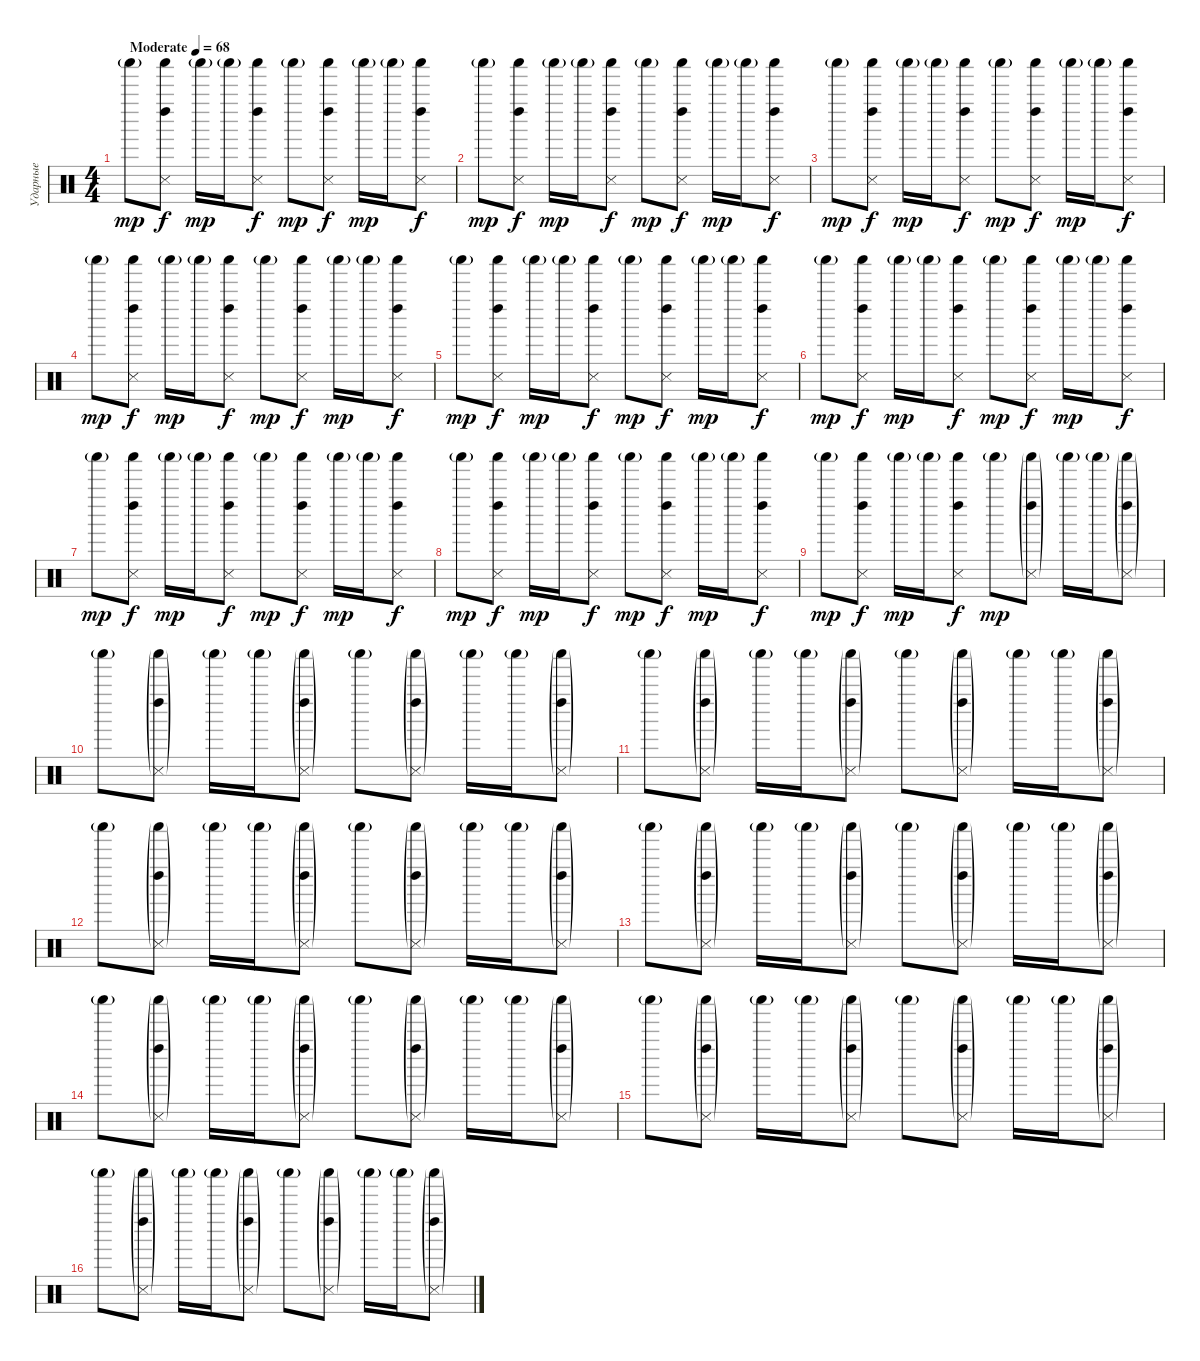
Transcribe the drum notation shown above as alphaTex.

\track ("Ударные" "Ударные") {instrument percussion}
\staff {score}
\articulation defaults
\ts (4 4)
\tempo (68 "Moderate")
\clef neutral
\ks c "Shaker (hit)"{g}.8{dy mp}
("Left Maraca (hit)" "Shaker (hit)" "Snare (side stick) 3").8{dy f} "Shaker (hit)"{g}.16{dy mp} "Shaker (hit)"{g}.16 ("Left Maraca (hit)" "Shaker (hit)" "Snare (side stick) 3").8{dy f} "Shaker (hit)"{g}.8{dy mp} ("Left Maraca (hit)" "Shaker (hit)" "Snare (side stick) 3").8{dy f} "Shaker (hit)"{g}.16{dy mp} "Shaker (hit)"{g}.16 ("Left Maraca (hit)" "Shaker (hit)" "Snare (side stick) 3").8{dy f} |
"Shaker (hit)"{g}.8{dy mp} ("Left Maraca (hit)" "Shaker (hit)" "Snare (side stick) 3").8{dy f} "Shaker (hit)"{g}.16{dy mp} "Shaker (hit)"{g}.16 ("Left Maraca (hit)" "Shaker (hit)" "Snare (side stick) 3").8{dy f} "Shaker (hit)"{g}.8{dy mp} ("Left Maraca (hit)" "Shaker (hit)" "Snare (side stick) 3").8{dy f} "Shaker (hit)"{g}.16{dy mp} "Shaker (hit)"{g}.16 ("Left Maraca (hit)" "Shaker (hit)" "Snare (side stick) 3").8{dy f} |
"Shaker (hit)"{g}.8{dy mp} ("Left Maraca (hit)" "Shaker (hit)" "Snare (side stick) 3").8{dy f} "Shaker (hit)"{g}.16{dy mp} "Shaker (hit)"{g}.16 ("Left Maraca (hit)" "Shaker (hit)" "Snare (side stick) 3").8{dy f} "Shaker (hit)"{g}.8{dy mp} ("Left Maraca (hit)" "Shaker (hit)" "Snare (side stick) 3").8{dy f} "Shaker (hit)"{g}.16{dy mp} "Shaker (hit)"{g}.16 ("Left Maraca (hit)" "Shaker (hit)" "Snare (side stick) 3").8{dy f} |
"Shaker (hit)"{g}.8{dy mp} ("Left Maraca (hit)" "Shaker (hit)" "Snare (side stick) 3").8{dy f} "Shaker (hit)"{g}.16{dy mp} "Shaker (hit)"{g}.16 ("Left Maraca (hit)" "Shaker (hit)" "Snare (side stick) 3").8{dy f} "Shaker (hit)"{g}.8{dy mp} ("Left Maraca (hit)" "Shaker (hit)" "Snare (side stick) 3").8{dy f} "Shaker (hit)"{g}.16{dy mp} "Shaker (hit)"{g}.16 ("Left Maraca (hit)" "Shaker (hit)" "Snare (side stick) 3").8{dy f} |
"Shaker (hit)"{g}.8{dy mp} ("Left Maraca (hit)" "Shaker (hit)" "Snare (side stick) 3").8{dy f} "Shaker (hit)"{g}.16{dy mp} "Shaker (hit)"{g}.16 ("Left Maraca (hit)" "Shaker (hit)" "Snare (side stick) 3").8{dy f} "Shaker (hit)"{g}.8{dy mp} ("Left Maraca (hit)" "Shaker (hit)" "Snare (side stick) 3").8{dy f} "Shaker (hit)"{g}.16{dy mp} "Shaker (hit)"{g}.16 ("Left Maraca (hit)" "Shaker (hit)" "Snare (side stick) 3").8{dy f} |
"Shaker (hit)"{g}.8{dy mp} ("Left Maraca (hit)" "Shaker (hit)" "Snare (side stick) 3").8{dy f} "Shaker (hit)"{g}.16{dy mp} "Shaker (hit)"{g}.16 ("Left Maraca (hit)" "Shaker (hit)" "Snare (side stick) 3").8{dy f} "Shaker (hit)"{g}.8{dy mp} ("Left Maraca (hit)" "Shaker (hit)" "Snare (side stick) 3").8{dy f} "Shaker (hit)"{g}.16{dy mp} "Shaker (hit)"{g}.16 ("Left Maraca (hit)" "Shaker (hit)" "Snare (side stick) 3").8{dy f} |
"Shaker (hit)"{g}.8{dy mp} ("Left Maraca (hit)" "Shaker (hit)" "Snare (side stick) 3").8{dy f} "Shaker (hit)"{g}.16{dy mp} "Shaker (hit)"{g}.16 ("Left Maraca (hit)" "Shaker (hit)" "Snare (side stick) 3").8{dy f} "Shaker (hit)"{g}.8{dy mp} ("Left Maraca (hit)" "Shaker (hit)" "Snare (side stick) 3").8{dy f} "Shaker (hit)"{g}.16{dy mp} "Shaker (hit)"{g}.16 ("Left Maraca (hit)" "Shaker (hit)" "Snare (side stick) 3").8{dy f} |
"Shaker (hit)"{g}.8{dy mp} ("Left Maraca (hit)" "Shaker (hit)" "Snare (side stick) 3").8{dy f} "Shaker (hit)"{g}.16{dy mp} "Shaker (hit)"{g}.16 ("Left Maraca (hit)" "Shaker (hit)" "Snare (side stick) 3").8{dy f} "Shaker (hit)"{g}.8{dy mp} ("Left Maraca (hit)" "Shaker (hit)" "Snare (side stick) 3").8{dy f} "Shaker (hit)"{g}.16{dy mp} "Shaker (hit)"{g}.16 ("Left Maraca (hit)" "Shaker (hit)" "Snare (side stick) 3").8{dy f} |
"Shaker (hit)"{g}.8{dy mp} ("Left Maraca (hit)" "Shaker (hit)" "Snare (side stick) 3").8{dy f} "Shaker (hit)"{g}.16{dy mp} "Shaker (hit)"{g}.16 ("Left Maraca (hit)" "Shaker (hit)" "Snare (side stick) 3").8{dy f} "Shaker (hit)"{g}.8{dy mp} ("Left Maraca (hit)"{g} "Shaker (hit)"{g} "Snare (side stick) 3"{g}).8 "Shaker (hit)"{g}.16 "Shaker (hit)"{g}.16 ("Left Maraca (hit)"{g} "Shaker (hit)"{g} "Snare (side stick) 3"{g}).8 |
"Shaker (hit)"{g}.8 ("Left Maraca (hit)"{g} "Shaker (hit)"{g} "Snare (side stick) 3"{g}).8 "Shaker (hit)"{g}.16 "Shaker (hit)"{g}.16 ("Left Maraca (hit)"{g} "Shaker (hit)"{g} "Snare (side stick) 3"{g}).8 "Shaker (hit)"{g}.8 ("Left Maraca (hit)"{g} "Shaker (hit)"{g} "Snare (side stick) 3"{g}).8 "Shaker (hit)"{g}.16 "Shaker (hit)"{g}.16 ("Left Maraca (hit)"{g} "Shaker (hit)"{g} "Snare (side stick) 3"{g}).8 |
"Shaker (hit)"{g}.8 ("Left Maraca (hit)"{g} "Shaker (hit)"{g} "Snare (side stick) 3"{g}).8 "Shaker (hit)"{g}.16 "Shaker (hit)"{g}.16 ("Left Maraca (hit)"{g} "Shaker (hit)"{g} "Snare (side stick) 3"{g}).8 "Shaker (hit)"{g}.8 ("Left Maraca (hit)"{g} "Shaker (hit)"{g} "Snare (side stick) 3"{g}).8 "Shaker (hit)"{g}.16 "Shaker (hit)"{g}.16 ("Left Maraca (hit)"{g} "Shaker (hit)"{g} "Snare (side stick) 3"{g}).8 |
"Shaker (hit)"{g}.8 ("Left Maraca (hit)"{g} "Shaker (hit)"{g} "Snare (side stick) 3"{g}).8 "Shaker (hit)"{g}.16 "Shaker (hit)"{g}.16 ("Left Maraca (hit)"{g} "Shaker (hit)"{g} "Snare (side stick) 3"{g}).8 "Shaker (hit)"{g}.8 ("Left Maraca (hit)"{g} "Shaker (hit)"{g} "Snare (side stick) 3"{g}).8 "Shaker (hit)"{g}.16 "Shaker (hit)"{g}.16 ("Left Maraca (hit)"{g} "Shaker (hit)"{g} "Snare (side stick) 3"{g}).8 |
"Shaker (hit)"{g}.8 ("Left Maraca (hit)"{g} "Shaker (hit)"{g} "Snare (side stick) 3"{g}).8 "Shaker (hit)"{g}.16 "Shaker (hit)"{g}.16 ("Left Maraca (hit)"{g} "Shaker (hit)"{g} "Snare (side stick) 3"{g}).8 "Shaker (hit)"{g}.8 ("Left Maraca (hit)"{g} "Shaker (hit)"{g} "Snare (side stick) 3"{g}).8 "Shaker (hit)"{g}.16 "Shaker (hit)"{g}.16 ("Left Maraca (hit)"{g} "Shaker (hit)"{g} "Snare (side stick) 3"{g}).8 |
"Shaker (hit)"{g}.8 ("Left Maraca (hit)"{g} "Shaker (hit)"{g} "Snare (side stick) 3"{g}).8 "Shaker (hit)"{g}.16 "Shaker (hit)"{g}.16 ("Left Maraca (hit)"{g} "Shaker (hit)"{g} "Snare (side stick) 3"{g}).8 "Shaker (hit)"{g}.8 ("Left Maraca (hit)"{g} "Shaker (hit)"{g} "Snare (side stick) 3"{g}).8 "Shaker (hit)"{g}.16 "Shaker (hit)"{g}.16 ("Left Maraca (hit)"{g} "Shaker (hit)"{g} "Snare (side stick) 3"{g}).8 |
"Shaker (hit)"{g}.8 ("Left Maraca (hit)"{g} "Shaker (hit)"{g} "Snare (side stick) 3"{g}).8 "Shaker (hit)"{g}.16 "Shaker (hit)"{g}.16 ("Left Maraca (hit)"{g} "Shaker (hit)"{g} "Snare (side stick) 3"{g}).8 "Shaker (hit)"{g}.8 ("Left Maraca (hit)"{g} "Shaker (hit)"{g} "Snare (side stick) 3"{g}).8 "Shaker (hit)"{g}.16 "Shaker (hit)"{g}.16 ("Left Maraca (hit)"{g} "Shaker (hit)"{g} "Snare (side stick) 3"{g}).8 |
"Shaker (hit)"{g}.8 ("Left Maraca (hit)"{g} "Shaker (hit)"{g} "Snare (side stick) 3"{g}).8 "Shaker (hit)"{g}.16 "Shaker (hit)"{g}.16 ("Left Maraca (hit)"{g} "Shaker (hit)"{g} "Snare (side stick) 3"{g}).8 "Shaker (hit)"{g}.8 ("Left Maraca (hit)"{g} "Shaker (hit)"{g} "Snare (side stick) 3"{g}).8 "Shaker (hit)"{g}.16 "Shaker (hit)"{g}.16 ("Left Maraca (hit)"{g} "Shaker (hit)"{g} "Snare (side stick) 3"{g}).8
